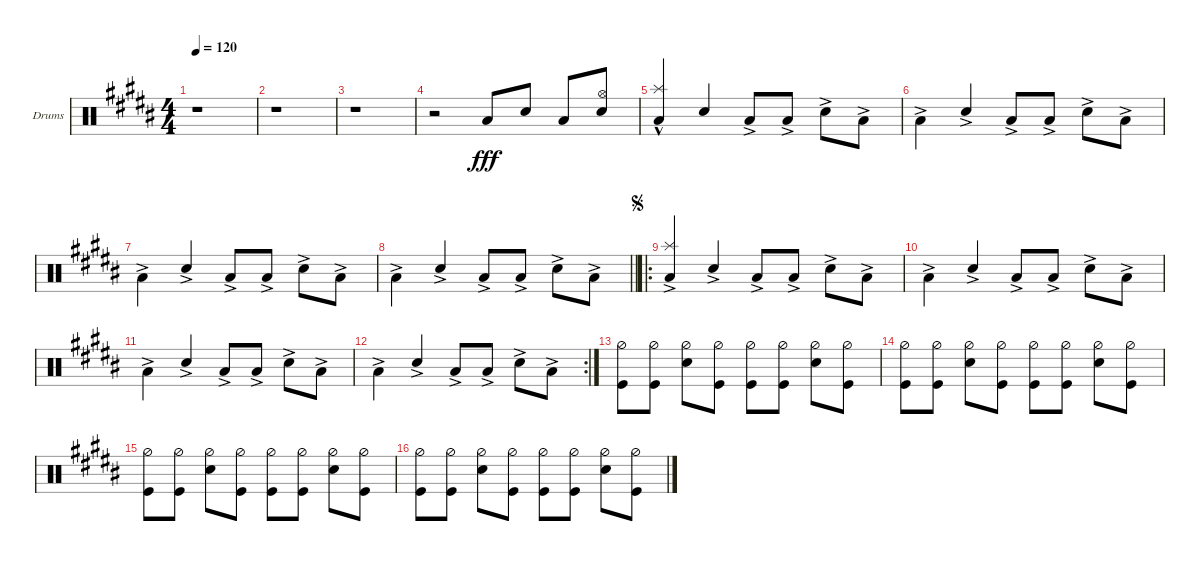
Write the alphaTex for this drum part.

\defaultSystemsLayout 4
\bracketExtendMode groupsimilarinstruments
\firstSystemTrackNameOrientation horizontal
\otherSystemsTrackNameOrientation horizontal
\track ("Drumkit" "Drums") {instrument percussion}
\staff {score}
\articulation defaults
\ts (4 4)
\tempo 120
\clef neutral
\ks b
r.1{dy fff} |
r.1 |
r.1 |
r.2 "Low Tom (hit)".8{beam invert} "Snare (hit) 2".8 "Low Tom (hit)".8{beam invert} ("Snare (hit) 2" "Hi-Hat (open)").8 |
("Low Tom (hit)" "Splash (hit)"{hac}).4 "Snare (hit) 2".4{beam invert} "Low Tom (hit)"{ac}.8 "Low Tom (hit)"{ac}.8 "Snare (hit) 2"{ac}.8 "Low Tom (hit)"{ac}.8 |
"Low Tom (hit)"{ac}.4 "Snare (hit) 2"{ac}.4{beam invert} "Low Tom (hit)"{ac}.8 "Low Tom (hit)"{ac}.8 "Snare (hit) 2"{ac}.8 "Low Tom (hit)"{ac}.8 |
"Low Tom (hit)"{ac}.4 "Snare (hit) 2"{ac}.4{beam invert} "Low Tom (hit)"{ac}.8 "Low Tom (hit)"{ac}.8 "Snare (hit) 2"{ac}.8 "Low Tom (hit)"{ac}.8 |
\barLineRight lightlight "Low Tom (hit)"{ac}.4 "Snare (hit) 2"{ac}.4{beam invert} "Low Tom (hit)"{ac}.8 "Low Tom (hit)"{ac}.8 "Snare (hit) 2"{ac}.8 "Low Tom (hit)"{ac}.8
|
\ro
\jump segno
("Low Tom (hit)"{ac} "Splash (hit)").4 "Snare (hit) 2"{ac}.4{beam invert} "Low Tom (hit)"{ac}.8 "Low Tom (hit)"{ac}.8 "Snare (hit) 2"{ac}.8 "Low Tom (hit)"{ac}.8 |
"Low Tom (hit)"{ac}.4 "Snare (hit) 2"{ac}.4{beam invert} "Low Tom (hit)"{ac}.8 "Low Tom (hit)"{ac}.8 "Snare (hit) 2"{ac}.8 "Low Tom (hit)"{ac}.8 |
"Low Tom (hit)"{ac}.4 "Snare (hit) 2"{ac}.4{beam invert} "Low Tom (hit)"{ac}.8 "Low Tom (hit)"{ac}.8 "Snare (hit) 2"{ac}.8 "Low Tom (hit)"{ac}.8 |
\rc 2 "Low Tom (hit)"{ac}.4 "Snare (hit) 2"{ac}.4{beam invert} "Low Tom (hit)"{ac}.8 "Low Tom (hit)"{ac}.8 "Snare (hit) 2"{ac}.8 "Low Tom (hit)"{ac}.8
|
("Kick (hit)" "Hi-Hat (half)").8 ("Kick (hit)" "Hi-Hat (half)").8 ("Snare (hit) 2" "Hi-Hat (half)").8 ("Kick (hit)" "Hi-Hat (half)").8 ("Kick (hit)" "Hi-Hat (half)").8 ("Kick (hit)" "Hi-Hat (half)").8 ("Snare (hit) 2" "Hi-Hat (half)").8 ("Kick (hit)" "Hi-Hat (half)").8 |
("Kick (hit)" "Hi-Hat (half)").8 ("Kick (hit)" "Hi-Hat (half)").8 ("Snare (hit) 2" "Hi-Hat (half)").8 ("Kick (hit)" "Hi-Hat (half)").8 ("Kick (hit)" "Hi-Hat (half)").8 ("Kick (hit)" "Hi-Hat (half)").8 ("Snare (hit) 2" "Hi-Hat (half)").8 ("Kick (hit)" "Hi-Hat (half)").8 |
("Kick (hit)" "Hi-Hat (half)").8 ("Kick (hit)" "Hi-Hat (half)").8 ("Snare (hit) 2" "Hi-Hat (half)").8 ("Kick (hit)" "Hi-Hat (half)").8 ("Kick (hit)" "Hi-Hat (half)").8 ("Kick (hit)" "Hi-Hat (half)").8 ("Snare (hit) 2" "Hi-Hat (half)").8 ("Kick (hit)" "Hi-Hat (half)").8 |
("Kick (hit)" "Hi-Hat (half)").8 ("Kick (hit)" "Hi-Hat (half)").8 ("Snare (hit) 2" "Hi-Hat (half)").8 ("Kick (hit)" "Hi-Hat (half)").8 ("Kick (hit)" "Hi-Hat (half)").8 ("Kick (hit)" "Hi-Hat (half)").8 ("Snare (hit) 2" "Hi-Hat (half)").8 ("Kick (hit)" "Hi-Hat (half)").8
